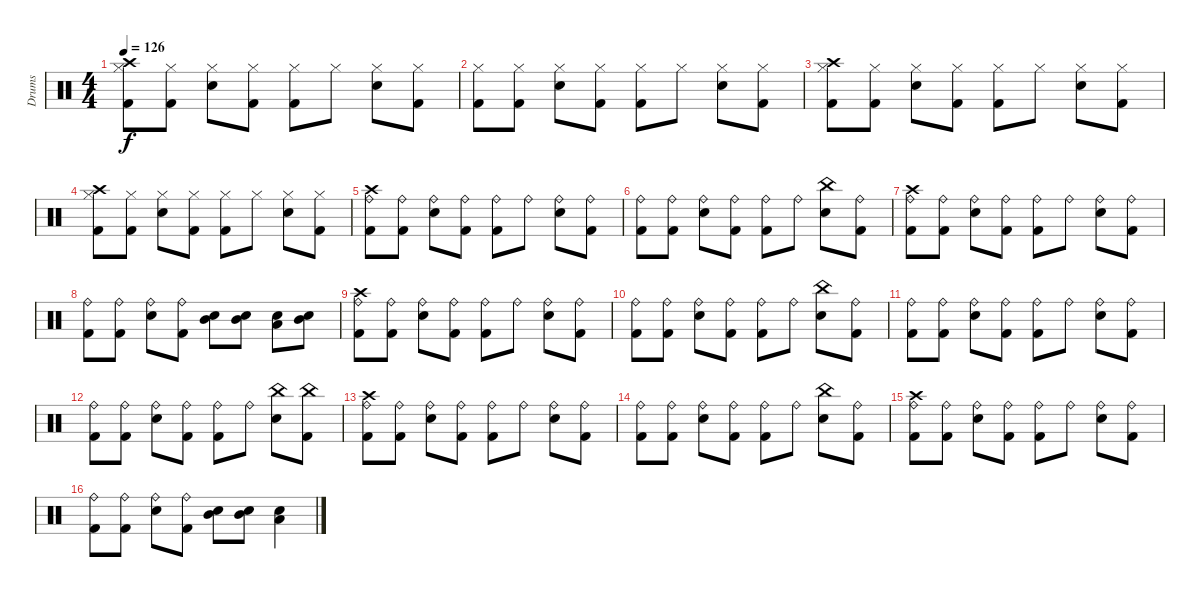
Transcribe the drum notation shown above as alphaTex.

\track ("Drums" "Drums") {instrument percussion}
\staff {score}
\articulation defaults
\ts (4 4)
\tempo 126
\clef neutral
\ks c
("Crash high (hit)" "Hi-Hat (closed)" "Kick (hit) 2").8{dy f} ("Hi-Hat (closed)" "Kick (hit) 2").8 ("Hi-Hat (closed)" "Snare (hit) 2").8 ("Hi-Hat (closed)" "Kick (hit) 2").8 ("Hi-Hat (closed)" "Kick (hit) 2").8 "Hi-Hat (closed)".8 ("Hi-Hat (closed)" "Snare (hit) 2").8 ("Hi-Hat (closed)" "Kick (hit) 2").8 |
("Hi-Hat (closed)" "Kick (hit) 2").8 ("Hi-Hat (closed)" "Kick (hit) 2").8 ("Hi-Hat (closed)" "Snare (hit) 2").8 ("Hi-Hat (closed)" "Kick (hit) 2").8 ("Hi-Hat (closed)" "Kick (hit) 2").8 "Hi-Hat (closed)".8 ("Hi-Hat (closed)" "Snare (hit) 2").8 ("Hi-Hat (closed)" "Kick (hit) 2").8 |
("Crash high (hit)" "Hi-Hat (closed)" "Kick (hit) 2").8 ("Hi-Hat (closed)" "Kick (hit) 2").8 ("Hi-Hat (closed)" "Snare (hit) 2").8 ("Hi-Hat (closed)" "Kick (hit) 2").8 ("Hi-Hat (closed)" "Kick (hit) 2").8 "Hi-Hat (closed)".8 ("Hi-Hat (closed)" "Snare (hit) 2").8 ("Hi-Hat (closed)" "Kick (hit) 2").8 |
("Crash high (hit)" "Hi-Hat (closed)" "Kick (hit) 2").8 ("Hi-Hat (closed)" "Kick (hit) 2").8 ("Hi-Hat (closed)" "Snare (hit) 2").8 ("Hi-Hat (closed)" "Kick (hit) 2").8 ("Hi-Hat (closed)" "Kick (hit) 2").8 "Hi-Hat (closed)".8 ("Hi-Hat (closed)" "Snare (hit) 2").8 ("Hi-Hat (closed)" "Kick (hit) 2").8 |
("Crash high (hit)" "Ride (bell)" "Kick (hit) 2").8 ("Ride (bell)" "Kick (hit) 2").8 ("Ride (bell)" "Snare (hit) 2").8 ("Ride (bell)" "Kick (hit) 2").8 ("Ride (bell)" "Kick (hit) 2").8 "Ride (bell)".8 ("Ride (bell)" "Snare (hit) 2").8 ("Ride (bell)" "Kick (hit) 2").8 |
("Ride (bell)" "Kick (hit) 2").8 ("Ride (bell)" "Kick (hit) 2").8 ("Ride (bell)" "Snare (hit) 2").8 ("Ride (bell)" "Kick (hit) 2").8 ("Ride (bell)" "Kick (hit) 2").8 "Ride (bell)".8 ("China (hit)" "Snare (hit) 2").8 ("Ride (bell)" "Kick (hit) 2").8 |
("Crash high (hit)" "Ride (bell)" "Kick (hit) 2").8 ("Ride (bell)" "Kick (hit) 2").8 ("Ride (bell)" "Snare (hit) 2").8 ("Ride (bell)" "Kick (hit) 2").8 ("Ride (bell)" "Kick (hit) 2").8 "Ride (bell)".8 ("Ride (bell)" "Snare (hit) 2").8 ("Ride (bell)" "Kick (hit) 2").8 |
("Ride (bell)" "Kick (hit) 2").8 ("Ride (bell)" "Kick (hit) 2").8 ("Ride (bell)" "Snare (hit) 2").8 ("Ride (bell)" "Kick (hit) 2").8 ("Mid Tom (hit)" "Snare (hit) 2").8 ("Mid Tom (hit)" "Snare (hit) 2").8 ("Low Tom (hit)" "Snare (hit) 2").8 ("Mid Tom (hit)" "Snare (hit) 2").8 |
("Crash high (hit)" "Ride (bell)" "Kick (hit) 2").8 ("Ride (bell)" "Kick (hit) 2").8 ("Ride (bell)" "Snare (hit) 2").8 ("Ride (bell)" "Kick (hit) 2").8 ("Ride (bell)" "Kick (hit) 2").8 "Ride (bell)".8 ("Ride (bell)" "Snare (hit) 2").8 ("Ride (bell)" "Kick (hit) 2").8 |
("Ride (bell)" "Kick (hit) 2").8 ("Ride (bell)" "Kick (hit) 2").8 ("Ride (bell)" "Snare (hit) 2").8 ("Ride (bell)" "Kick (hit) 2").8 ("Ride (bell)" "Kick (hit) 2").8 "Ride (bell)".8 ("China (hit)" "Snare (hit) 2").8 ("Ride (bell)" "Kick (hit) 2").8 |
("Ride (bell)" "Kick (hit) 2").8 ("Ride (bell)" "Kick (hit) 2").8 ("Ride (bell)" "Snare (hit) 2").8 ("Ride (bell)" "Kick (hit) 2").8 ("Ride (bell)" "Kick (hit) 2").8 "Ride (bell)".8 ("Ride (bell)" "Snare (hit) 2").8 ("Ride (bell)" "Kick (hit) 2").8 |
("Ride (bell)" "Kick (hit) 2").8 ("Ride (bell)" "Kick (hit) 2").8 ("Ride (bell)" "Snare (hit) 2").8 ("Ride (bell)" "Kick (hit) 2").8 ("Ride (bell)" "Kick (hit) 2").8 "Ride (bell)".8 ("China (hit)" "Snare (hit) 2").8 ("China (hit)" "Kick (hit) 2").8 |
("Crash high (hit)" "Ride (bell)" "Kick (hit) 2").8 ("Ride (bell)" "Kick (hit) 2").8 ("Ride (bell)" "Snare (hit) 2").8 ("Ride (bell)" "Kick (hit) 2").8 ("Ride (bell)" "Kick (hit) 2").8 "Ride (bell)".8 ("Ride (bell)" "Snare (hit) 2").8 ("Ride (bell)" "Kick (hit) 2").8 |
("Ride (bell)" "Kick (hit) 2").8 ("Ride (bell)" "Kick (hit) 2").8 ("Ride (bell)" "Snare (hit) 2").8 ("Ride (bell)" "Kick (hit) 2").8 ("Ride (bell)" "Kick (hit) 2").8 "Ride (bell)".8 ("China (hit)" "Snare (hit) 2").8 ("Ride (bell)" "Kick (hit) 2").8 |
("Crash high (hit)" "Ride (bell)" "Kick (hit) 2").8 ("Ride (bell)" "Kick (hit) 2").8 ("Ride (bell)" "Snare (hit) 2").8 ("Ride (bell)" "Kick (hit) 2").8 ("Ride (bell)" "Kick (hit) 2").8 "Ride (bell)".8 ("Ride (bell)" "Snare (hit) 2").8 ("Ride (bell)" "Kick (hit) 2").8 |
("Ride (bell)" "Kick (hit) 2").8 ("Ride (bell)" "Kick (hit) 2").8 ("Ride (bell)" "Snare (hit) 2").8 ("Ride (bell)" "Kick (hit) 2").8 ("Mid Tom (hit)" "Snare (hit) 2").8 ("Mid Tom (hit)" "Snare (hit) 2").8 ("Low Tom (hit)" "Snare (hit) 2").4
